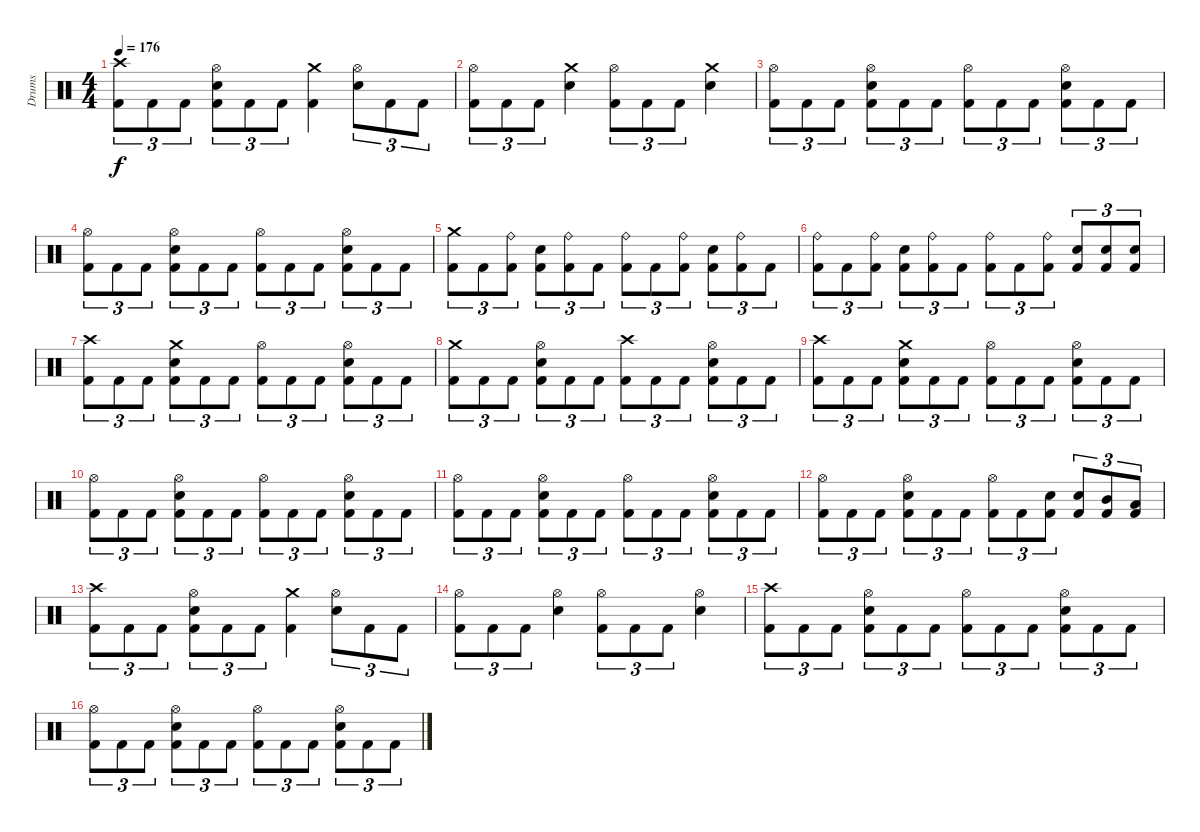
\track ("Drums" "Drums") {instrument percussion}
\staff {score}
\articulation defaults
\ts (4 4)
\tempo 176
\clef neutral
\ks c
("Kick (hit) 2" "Crash high (hit)").8{tu (3 2) dy f} "Kick (hit) 2".8{tu (3 2)} "Kick (hit) 2".8{tu (3 2)} ("Kick (hit) 2" "Electric Snare (hit)" "Hi-Hat (open)").8{tu (3 2)} "Kick (hit) 2".8{tu (3 2)} "Kick (hit) 2".8{tu (3 2)} ("Kick (hit) 2" "Crash medium (hit)").4 ("Electric Snare (hit)" "Hi-Hat (open)").8{tu (3 2)} "Kick (hit) 2".8{tu (3 2)} "Kick (hit) 2".8{tu (3 2)} |
("Kick (hit) 2" "Hi-Hat (open)").8{tu (3 2)} "Kick (hit) 2".8{tu (3 2)} "Kick (hit) 2".8{tu (3 2)} ("Electric Snare (hit)" "Crash medium (hit)").4 ("Kick (hit) 2" "Hi-Hat (open)").8{tu (3 2)} "Kick (hit) 2".8{tu (3 2)} "Kick (hit) 2".8{tu (3 2)} ("Electric Snare (hit)" "Crash medium (hit)").4 |
("Kick (hit) 2" "Hi-Hat (open)").8{tu (3 2)} "Kick (hit) 2".8{tu (3 2)} "Kick (hit) 2".8{tu (3 2)} ("Kick (hit) 2" "Electric Snare (hit)" "Hi-Hat (open)").8{tu (3 2)} "Kick (hit) 2".8{tu (3 2)} "Kick (hit) 2".8{tu (3 2)} ("Kick (hit) 2" "Hi-Hat (open)").8{tu (3 2)} "Kick (hit) 2".8{tu (3 2)} "Kick (hit) 2".8{tu (3 2)} ("Kick (hit) 2" "Electric Snare (hit)" "Hi-Hat (open)").8{tu (3 2)} "Kick (hit) 2".8{tu (3 2)} "Kick (hit) 2".8{tu (3 2)} |
("Kick (hit) 2" "Hi-Hat (open)").8{tu (3 2)} "Kick (hit) 2".8{tu (3 2)} "Kick (hit) 2".8{tu (3 2)} ("Kick (hit) 2" "Electric Snare (hit)" "Hi-Hat (open)").8{tu (3 2)} "Kick (hit) 2".8{tu (3 2)} "Kick (hit) 2".8{tu (3 2)} ("Kick (hit) 2" "Hi-Hat (open)").8{tu (3 2)} "Kick (hit) 2".8{tu (3 2)} "Kick (hit) 2".8{tu (3 2)} ("Kick (hit) 2" "Electric Snare (hit)" "Hi-Hat (open)").8{tu (3 2)} "Kick (hit) 2".8{tu (3 2)} "Kick (hit) 2".8{tu (3 2)} |
\section ("" "")
("Kick (hit) 2" "Crash medium (hit)").8{tu (3 2)} "Kick (hit) 2".8{tu (3 2)} ("Kick (hit) 2" "Ride (bell)").8{tu (3 2)} ("Kick (hit) 2" "Electric Snare (hit)").8{tu (3 2)} ("Kick (hit) 2" "Ride (bell)").8{tu (3 2)} "Kick (hit) 2".8{tu (3 2)} ("Kick (hit) 2" "Ride (bell)").8{tu (3 2)} "Kick (hit) 2".8{tu (3 2)} ("Kick (hit) 2" "Ride (bell)").8{tu (3 2)} ("Kick (hit) 2" "Electric Snare (hit)").8{tu (3 2)} ("Kick (hit) 2" "Ride (bell)").8{tu (3 2)} "Kick (hit) 2".8{tu (3 2)} |
("Kick (hit) 2" "Ride (bell)").8{tu (3 2)} "Kick (hit) 2".8{tu (3 2)} ("Kick (hit) 2" "Ride (bell)").8{tu (3 2)} ("Kick (hit) 2" "Electric Snare (hit)").8{tu (3 2)} ("Kick (hit) 2" "Ride (bell)").8{tu (3 2)} "Kick (hit) 2".8{tu (3 2)} ("Kick (hit) 2" "Ride (bell)").8{tu (3 2)} "Kick (hit) 2".8{tu (3 2)} ("Kick (hit) 2" "Ride (bell)").8{tu (3 2)} ("Kick (hit) 2" "Electric Snare (hit)").8{tu (3 2)} ("Kick (hit) 2" "Electric Snare (hit)").8{tu (3 2)} ("Kick (hit) 2" "Electric Snare (hit)").8{tu (3 2)} |
("Kick (hit) 2" "Crash high (hit)").8{tu (3 2)} "Kick (hit) 2".8{tu (3 2)} "Kick (hit) 2".8{tu (3 2)} ("Kick (hit) 2" "Electric Snare (hit)" "Crash medium (hit)").8{tu (3 2)} "Kick (hit) 2".8{tu (3 2)} "Kick (hit) 2".8{tu (3 2)} ("Kick (hit) 2" "Hi-Hat (open)").8{tu (3 2)} "Kick (hit) 2".8{tu (3 2)} "Kick (hit) 2".8{tu (3 2)} ("Kick (hit) 2" "Electric Snare (hit)" "Hi-Hat (open)").8{tu (3 2)} "Kick (hit) 2".8{tu (3 2)} "Kick (hit) 2".8{tu (3 2)} |
("Kick (hit) 2" "Crash medium (hit)").8{tu (3 2)} "Kick (hit) 2".8{tu (3 2)} "Kick (hit) 2".8{tu (3 2)} ("Kick (hit) 2" "Electric Snare (hit)" "Hi-Hat (open)").8{tu (3 2)} "Kick (hit) 2".8{tu (3 2)} "Kick (hit) 2".8{tu (3 2)} ("Kick (hit) 2" "Crash high (hit)").8{tu (3 2)} "Kick (hit) 2".8{tu (3 2)} "Kick (hit) 2".8{tu (3 2)} ("Kick (hit) 2" "Electric Snare (hit)" "Hi-Hat (open)").8{tu (3 2)} "Kick (hit) 2".8{tu (3 2)} "Kick (hit) 2".8{tu (3 2)} |
("Kick (hit) 2" "Crash high (hit)").8{tu (3 2)} "Kick (hit) 2".8{tu (3 2)} "Kick (hit) 2".8{tu (3 2)} ("Kick (hit) 2" "Electric Snare (hit)" "Crash medium (hit)").8{tu (3 2)} "Kick (hit) 2".8{tu (3 2)} "Kick (hit) 2".8{tu (3 2)} ("Kick (hit) 2" "Hi-Hat (open)").8{tu (3 2)} "Kick (hit) 2".8{tu (3 2)} "Kick (hit) 2".8{tu (3 2)} ("Kick (hit) 2" "Electric Snare (hit)" "Hi-Hat (open)").8{tu (3 2)} "Kick (hit) 2".8{tu (3 2)} "Kick (hit) 2".8{tu (3 2)} |
("Kick (hit) 2" "Hi-Hat (open)").8{tu (3 2)} "Kick (hit) 2".8{tu (3 2)} "Kick (hit) 2".8{tu (3 2)} ("Kick (hit) 2" "Electric Snare (hit)" "Hi-Hat (open)").8{tu (3 2)} "Kick (hit) 2".8{tu (3 2)} "Kick (hit) 2".8{tu (3 2)} ("Kick (hit) 2" "Hi-Hat (open)").8{tu (3 2)} "Kick (hit) 2".8{tu (3 2)} "Kick (hit) 2".8{tu (3 2)} ("Kick (hit) 2" "Electric Snare (hit)" "Hi-Hat (open)").8{tu (3 2)} "Kick (hit) 2".8{tu (3 2)} "Kick (hit) 2".8{tu (3 2)} |
("Kick (hit) 2" "Hi-Hat (open)").8{tu (3 2)} "Kick (hit) 2".8{tu (3 2)} "Kick (hit) 2".8{tu (3 2)} ("Kick (hit) 2" "Electric Snare (hit)" "Hi-Hat (open)").8{tu (3 2)} "Kick (hit) 2".8{tu (3 2)} "Kick (hit) 2".8{tu (3 2)} ("Kick (hit) 2" "Hi-Hat (open)").8{tu (3 2)} "Kick (hit) 2".8{tu (3 2)} "Kick (hit) 2".8{tu (3 2)} ("Kick (hit) 2" "Electric Snare (hit)" "Hi-Hat (open)").8{tu (3 2)} "Kick (hit) 2".8{tu (3 2)} "Kick (hit) 2".8{tu (3 2)} |
("Kick (hit) 2" "Hi-Hat (open)").8{tu (3 2)} "Kick (hit) 2".8{tu (3 2)} "Kick (hit) 2".8{tu (3 2)} ("Kick (hit) 2" "Electric Snare (hit)" "Hi-Hat (open)").8{tu (3 2)} "Kick (hit) 2".8{tu (3 2)} "Kick (hit) 2".8{tu (3 2)} ("Kick (hit) 2" "Hi-Hat (open)").8{tu (3 2)} "Kick (hit) 2".8{tu (3 2)} ("Kick (hit) 2" "Electric Snare (hit)").8{tu (3 2)} ("Kick (hit) 2" "Electric Snare (hit)").8{tu (3 2)} ("Kick (hit) 2" "Mid Tom (hit)").8{tu (3 2)} ("Kick (hit) 2" "Low Tom (hit)").8{tu (3 2)} |
\section ("" "")
("Kick (hit) 2" "Crash high (hit)").8{tu (3 2)} "Kick (hit) 2".8{tu (3 2)} "Kick (hit) 2".8{tu (3 2)} ("Kick (hit) 2" "Electric Snare (hit)" "Hi-Hat (open)").8{tu (3 2)} "Kick (hit) 2".8{tu (3 2)} "Kick (hit) 2".8{tu (3 2)} ("Kick (hit) 2" "Crash medium (hit)").4 ("Electric Snare (hit)" "Hi-Hat (open)").8{tu (3 2)} "Kick (hit) 2".8{tu (3 2)} "Kick (hit) 2".8{tu (3 2)} |
("Kick (hit) 2" "Hi-Hat (open)").8{tu (3 2)} "Kick (hit) 2".8{tu (3 2)} "Kick (hit) 2".8{tu (3 2)} ("Electric Snare (hit)" "Hi-Hat (open)").4 ("Kick (hit) 2" "Hi-Hat (open)").8{tu (3 2)} "Kick (hit) 2".8{tu (3 2)} "Kick (hit) 2".8{tu (3 2)} ("Electric Snare (hit)" "Hi-Hat (open)").4 |
("Kick (hit) 2" "Crash high (hit)").8{tu (3 2)} "Kick (hit) 2".8{tu (3 2)} "Kick (hit) 2".8{tu (3 2)} ("Kick (hit) 2" "Electric Snare (hit)" "Hi-Hat (open)").8{tu (3 2)} "Kick (hit) 2".8{tu (3 2)} "Kick (hit) 2".8{tu (3 2)} ("Kick (hit) 2" "Hi-Hat (open)").8{tu (3 2)} "Kick (hit) 2".8{tu (3 2)} "Kick (hit) 2".8{tu (3 2)} ("Kick (hit) 2" "Electric Snare (hit)" "Hi-Hat (open)").8{tu (3 2)} "Kick (hit) 2".8{tu (3 2)} "Kick (hit) 2".8{tu (3 2)} |
("Kick (hit) 2" "Hi-Hat (open)").8{tu (3 2)} "Kick (hit) 2".8{tu (3 2)} "Kick (hit) 2".8{tu (3 2)} ("Kick (hit) 2" "Electric Snare (hit)" "Hi-Hat (open)").8{tu (3 2)} "Kick (hit) 2".8{tu (3 2)} "Kick (hit) 2".8{tu (3 2)} ("Kick (hit) 2" "Hi-Hat (open)").8{tu (3 2)} "Kick (hit) 2".8{tu (3 2)} "Kick (hit) 2".8{tu (3 2)} ("Kick (hit) 2" "Electric Snare (hit)" "Hi-Hat (open)").8{tu (3 2)} "Kick (hit) 2".8{tu (3 2)} "Kick (hit) 2".8{tu (3 2)}
